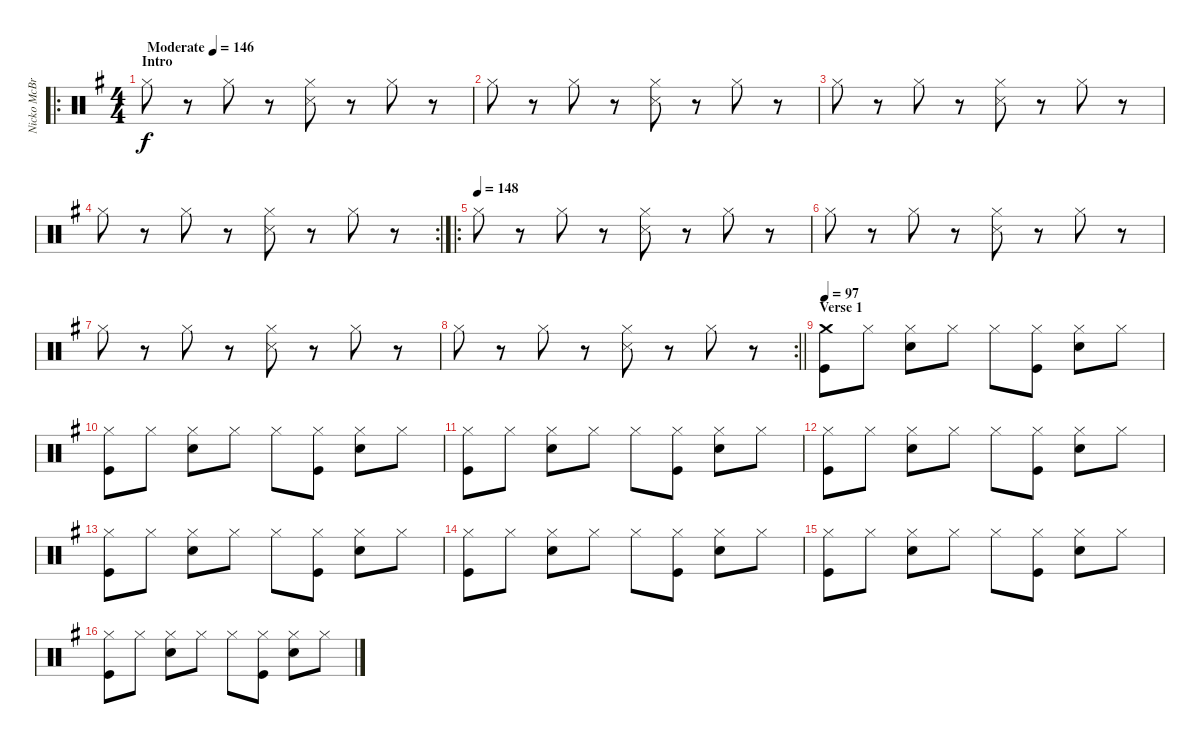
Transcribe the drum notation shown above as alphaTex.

\track ("Nicko McBrain (Drums)" "Nicko McBr") {instrument percussion}
\staff {score}
\articulation defaults
\ro
\ts (4 4)
\section ("" "Intro")
\tempo (146 "Moderate")
\clef neutral
\ks eminor "Hi-Hat (closed)".8{dy f}
r.8 "Hi-Hat (closed)".8 r.8 ("Hi-Hat (closed)" "Snare (side stick) 3").8 r.8 "Hi-Hat (closed)".8 r.8 |
"Hi-Hat (closed)".8 r.8 "Hi-Hat (closed)".8 r.8 ("Hi-Hat (closed)" "Snare (side stick) 3").8 r.8 "Hi-Hat (closed)".8 r.8 |
"Hi-Hat (closed)".8 r.8 "Hi-Hat (closed)".8 r.8 ("Hi-Hat (closed)" "Snare (side stick) 3").8 r.8 "Hi-Hat (closed)".8 r.8 |
\rc 2 "Hi-Hat (closed)".8
r.8 "Hi-Hat (closed)".8 r.8 ("Hi-Hat (closed)" "Snare (side stick) 3").8 r.8 "Hi-Hat (closed)".8 r.8 |
\ro
\tempo (148)
"Hi-Hat (closed)".8 r.8 "Hi-Hat (closed)".8 r.8 ("Hi-Hat (closed)" "Snare (side stick) 3").8 r.8 "Hi-Hat (closed)".8 r.8 |
"Hi-Hat (closed)".8 r.8 "Hi-Hat (closed)".8 r.8 ("Hi-Hat (closed)" "Snare (side stick) 3").8 r.8 "Hi-Hat (closed)".8 r.8 |
"Hi-Hat (closed)".8 r.8 "Hi-Hat (closed)".8 r.8 ("Hi-Hat (closed)" "Snare (side stick) 3").8 r.8 "Hi-Hat (closed)".8 r.8 |
\rc 2
\barLineRight lightlight "Hi-Hat (closed)".8
r.8 "Hi-Hat (closed)".8 r.8 ("Hi-Hat (closed)" "Snare (side stick) 3").8 r.8 "Hi-Hat (closed)".8 r.8 |
\section ("" "Verse 1")
\tempo 97
("Crash medium (hit)" "Kick (hit)").8 "Hi-Hat (closed)".8 ("Hi-Hat (closed)" "Snare (hit) 2").8 "Hi-Hat (closed)".8 "Hi-Hat (closed)".8 ("Hi-Hat (closed)" "Kick (hit)").8 ("Hi-Hat (closed)" "Snare (hit) 2").8 "Hi-Hat (closed)".8 |
("Hi-Hat (closed)" "Kick (hit)").8 "Hi-Hat (closed)".8 ("Hi-Hat (closed)" "Snare (hit) 2").8 "Hi-Hat (closed)".8 "Hi-Hat (closed)".8 ("Hi-Hat (closed)" "Kick (hit)").8 ("Hi-Hat (closed)" "Snare (hit) 2").8 "Hi-Hat (closed)".8 |
("Hi-Hat (closed)" "Kick (hit)").8 "Hi-Hat (closed)".8 ("Hi-Hat (closed)" "Snare (hit) 2").8 "Hi-Hat (closed)".8 "Hi-Hat (closed)".8 ("Hi-Hat (closed)" "Kick (hit)").8 ("Hi-Hat (closed)" "Snare (hit) 2").8 "Hi-Hat (closed)".8 |
("Hi-Hat (closed)" "Kick (hit)").8 "Hi-Hat (closed)".8 ("Hi-Hat (closed)" "Snare (hit) 2").8 "Hi-Hat (closed)".8 "Hi-Hat (closed)".8 ("Hi-Hat (closed)" "Kick (hit)").8 ("Hi-Hat (closed)" "Snare (hit) 2").8 "Hi-Hat (closed)".8 |
("Hi-Hat (closed)" "Kick (hit)").8 "Hi-Hat (closed)".8 ("Hi-Hat (closed)" "Snare (hit) 2").8 "Hi-Hat (closed)".8 "Hi-Hat (closed)".8 ("Hi-Hat (closed)" "Kick (hit)").8 ("Hi-Hat (closed)" "Snare (hit) 2").8 "Hi-Hat (closed)".8 |
("Hi-Hat (closed)" "Kick (hit)").8 "Hi-Hat (closed)".8 ("Hi-Hat (closed)" "Snare (hit) 2").8 "Hi-Hat (closed)".8 "Hi-Hat (closed)".8 ("Hi-Hat (closed)" "Kick (hit)").8 ("Hi-Hat (closed)" "Snare (hit) 2").8 "Hi-Hat (closed)".8 |
("Hi-Hat (closed)" "Kick (hit)").8 "Hi-Hat (closed)".8 ("Hi-Hat (closed)" "Snare (hit) 2").8 "Hi-Hat (closed)".8 "Hi-Hat (closed)".8 ("Hi-Hat (closed)" "Kick (hit)").8 ("Hi-Hat (closed)" "Snare (hit) 2").8 "Hi-Hat (closed)".8 |
("Hi-Hat (closed)" "Kick (hit)").8 "Hi-Hat (closed)".8 ("Hi-Hat (closed)" "Snare (hit) 2").8 "Hi-Hat (closed)".8 "Hi-Hat (closed)".8 ("Hi-Hat (closed)" "Kick (hit)").8 ("Hi-Hat (closed)" "Snare (hit) 2").8 "Hi-Hat (closed)".8
